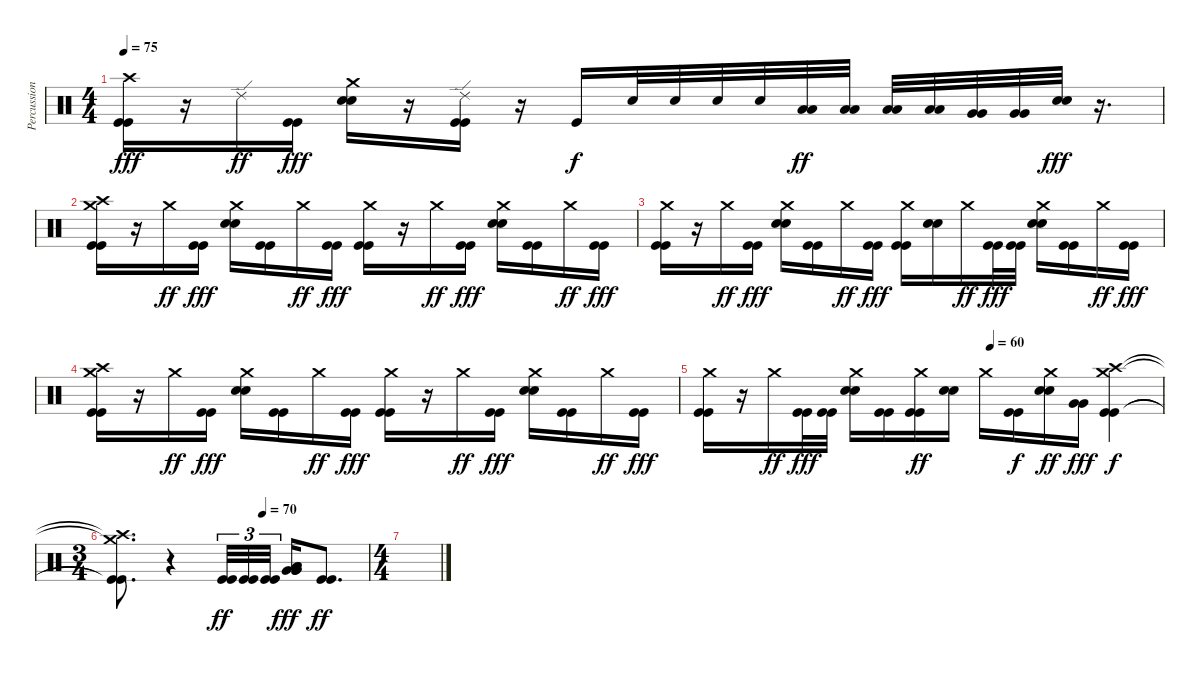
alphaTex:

\track ("Percussion" "Percussion") {instrument percussion}
\staff {score}
\articulation defaults
\ts (4 4)
\tempo 75
\clef neutral
\ks c
("Crash high (hit)" "Kick (hit)" "Kick (hit)").16{dy fff} r.16 "Ride (edge) 2".16{dy ff} ("Kick (hit)" "Kick (hit)").16{dy fff} ("Crash medium (hit)" "Electric Snare (hit)" "Electric Snare (hit)").16 r.16 ("Ride (edge) 2" "Kick (hit)" "Kick (hit)").16 r.16 "Kick (hit)".16{dy f} "Electric Snare (hit)".32 "Electric Snare (hit)".32 "Electric Snare (hit)".32 "Electric Snare (hit)".32 ("Low Tom (hit)" "Low Tom (hit)").32{dy ff} ("Low Tom (hit)" "Low Tom (hit)").32 ("Low Tom (hit)" "Low Tom (hit)").32 ("Low Tom (hit)" "Low Tom (hit)").32 ("Very Low Tom (hit)" "Very Low Tom (hit)").32 ("Very Low Tom (hit)" "Very Low Tom (hit)").32 ("Electric Snare (hit)" "Electric Snare (hit)").32{dy fff} r.16{d} |
("Crash high (hit)" "Crash medium (hit)" "Kick (hit)" "Kick (hit)").16 r.16 "Crash medium (hit)".16{dy ff} ("Kick (hit)" "Kick (hit)").16{dy fff} ("Crash medium (hit)" "Electric Snare (hit)" "Electric Snare (hit)").16 ("Kick (hit)" "Kick (hit)").16 "Crash medium (hit)".16{dy ff} ("Kick (hit)" "Kick (hit)").16{dy fff} ("Crash medium (hit)" "Kick (hit)" "Kick (hit)").16 r.16 "Crash medium (hit)".16{dy ff} ("Kick (hit)" "Kick (hit)").16{dy fff} ("Crash medium (hit)" "Electric Snare (hit)" "Electric Snare (hit)").16 ("Kick (hit)" "Kick (hit)").16 "Crash medium (hit)".16{dy ff} ("Kick (hit)" "Kick (hit)").16{dy fff} |
("Crash medium (hit)" "Kick (hit)" "Kick (hit)").16 r.16 "Crash medium (hit)".16{dy ff} ("Kick (hit)" "Kick (hit)").16{dy fff} ("Crash medium (hit)" "Electric Snare (hit)" "Electric Snare (hit)").16 ("Kick (hit)" "Kick (hit)").16 "Crash medium (hit)".16{dy ff} ("Kick (hit)" "Kick (hit)").16{dy fff} ("Crash medium (hit)" "Kick (hit)" "Kick (hit)").16 ("Electric Snare (hit)" "Electric Snare (hit)").16 "Crash medium (hit)".16{dy ff} ("Kick (hit)" "Kick (hit)").32{dy fff} ("Kick (hit)" "Kick (hit)").32 ("Crash medium (hit)" "Electric Snare (hit)" "Electric Snare (hit)").16 ("Kick (hit)" "Kick (hit)").16 "Crash medium (hit)".16{dy ff} ("Kick (hit)" "Kick (hit)").16{dy fff} |
("Crash high (hit)" "Crash medium (hit)" "Kick (hit)" "Kick (hit)").16 r.16 "Crash medium (hit)".16{dy ff} ("Kick (hit)" "Kick (hit)").16{dy fff} ("Crash medium (hit)" "Electric Snare (hit)" "Electric Snare (hit)").16 ("Kick (hit)" "Kick (hit)").16 "Crash medium (hit)".16{dy ff} ("Kick (hit)" "Kick (hit)").16{dy fff} ("Crash medium (hit)" "Kick (hit)" "Kick (hit)").16 r.16 "Crash medium (hit)".16{dy ff} ("Kick (hit)" "Kick (hit)").16{dy fff} ("Crash medium (hit)" "Electric Snare (hit)" "Electric Snare (hit)").16 ("Kick (hit)" "Kick (hit)").16 "Crash medium (hit)".16{dy ff} ("Kick (hit)" "Kick (hit)").16{dy fff} |
\tempo (60 0.625)
("Crash medium (hit)" "Kick (hit)" "Kick (hit)").16 r.16 "Crash medium (hit)".16{dy ff} ("Kick (hit)" "Kick (hit)").32{dy fff} ("Kick (hit)" "Kick (hit)").32 ("Crash medium (hit)" "Electric Snare (hit)" "Electric Snare (hit)").16 ("Kick (hit)" "Kick (hit)").16 ("Crash medium (hit)" "Kick (hit)" "Kick (hit)").16{dy ff} ("Electric Snare (hit)" "Electric Snare (hit)").16 "Crash medium (hit)".16 ("Kick (hit)" "Kick (hit)").16{dy f} ("Crash medium (hit)" "Electric Snare (hit)" "Electric Snare (hit)").16{dy ff} ("Very Low Tom (hit)" "Very Low Tom (hit)").16{dy fff} ("Crash high (hit)" "Crash medium (hit)" "Kick (hit)" "Kick (hit)").4{dy f} |
\ts (3 4)
\tempo (70 0.5833333333333334)
("Crash high (hit)"{t} "Crash medium (hit)"{t} "Kick (hit)"{t} "Kick (hit)"{t}).8{d} r.4 ("Kick (hit)" "Kick (hit)").32{tu (3 2) dy ff} ("Kick (hit)" "Kick (hit)").32{tu (3 2)} ("Kick (hit)" "Kick (hit)").32{tu (3 2)} ("Very Low Tom (hit)" "Low Floor Tom (hit)" "Very Low Tom (hit)" "Low Floor Tom (hit)" "Very Low Tom (hit)").16{dy fff} ("Kick (hit)" "Kick (hit)").8{d dy ff} |
\ts (4 4)
